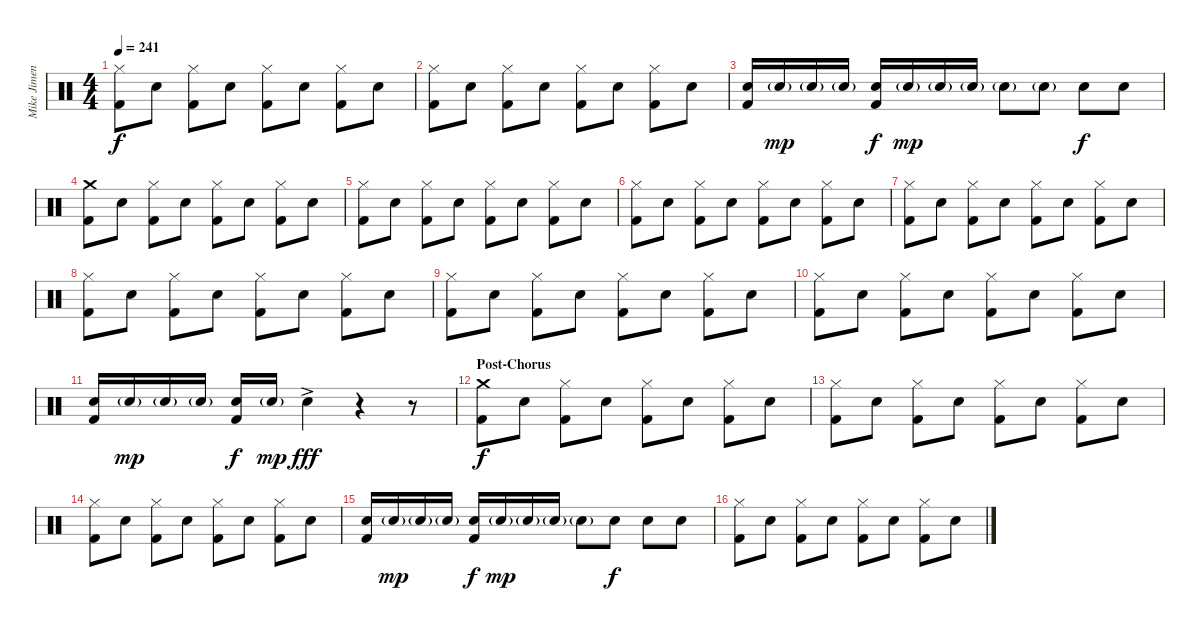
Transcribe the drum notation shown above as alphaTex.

\track ("Mike Jimenez" "Mike Jimen") {instrument percussion}
\staff {score}
\articulation defaults
\ts (4 4)
\tempo 241
\clef neutral
\ks c
("Hi-Hat (closed)" "Kick (hit) 2").8{dy f} "Electric Snare (hit)".8 ("Hi-Hat (closed)" "Kick (hit) 2").8 "Electric Snare (hit)".8 ("Hi-Hat (closed)" "Kick (hit) 2").8 "Electric Snare (hit)".8 ("Hi-Hat (closed)" "Kick (hit) 2").8 "Electric Snare (hit)".8 |
("Hi-Hat (closed)" "Kick (hit) 2").8 "Electric Snare (hit)".8 ("Hi-Hat (closed)" "Kick (hit) 2").8 "Electric Snare (hit)".8 ("Hi-Hat (closed)" "Kick (hit) 2").8 "Electric Snare (hit)".8 ("Hi-Hat (closed)" "Kick (hit) 2").8 "Electric Snare (hit)".8 |
("Electric Snare (hit)" "Kick (hit) 2").16 "Electric Snare (hit)"{g}.16{dy mp} "Electric Snare (hit)"{g}.16 "Electric Snare (hit)"{g}.16 ("Electric Snare (hit)" "Kick (hit) 2").16{dy f} "Electric Snare (hit)"{g}.16{dy mp} "Electric Snare (hit)"{g}.16 "Electric Snare (hit)"{g}.16 "Electric Snare (hit)"{g}.8 "Electric Snare (hit)"{g}.8 "Electric Snare (hit)".8{dy f} "Electric Snare (hit)".8 |
("Crash medium (hit)" "Kick (hit) 2").8 "Electric Snare (hit)".8 ("Hi-Hat (closed)" "Kick (hit) 2").8 "Electric Snare (hit)".8 ("Hi-Hat (closed)" "Kick (hit) 2").8 "Electric Snare (hit)".8 ("Hi-Hat (closed)" "Kick (hit) 2").8 "Electric Snare (hit)".8 |
("Hi-Hat (closed)" "Kick (hit) 2").8 "Electric Snare (hit)".8 ("Hi-Hat (closed)" "Kick (hit) 2").8 "Electric Snare (hit)".8 ("Hi-Hat (closed)" "Kick (hit) 2").8 "Electric Snare (hit)".8 ("Hi-Hat (closed)" "Kick (hit) 2").8 "Electric Snare (hit)".8 |
("Hi-Hat (closed)" "Kick (hit) 2").8 "Electric Snare (hit)".8 ("Hi-Hat (closed)" "Kick (hit) 2").8 "Electric Snare (hit)".8 ("Hi-Hat (closed)" "Kick (hit) 2").8 "Electric Snare (hit)".8 ("Hi-Hat (closed)" "Kick (hit) 2").8 "Electric Snare (hit)".8 |
("Hi-Hat (closed)" "Kick (hit) 2").8 "Electric Snare (hit)".8 ("Hi-Hat (closed)" "Kick (hit) 2").8 "Electric Snare (hit)".8 ("Hi-Hat (closed)" "Kick (hit) 2").8 "Electric Snare (hit)".8 ("Hi-Hat (closed)" "Kick (hit) 2").8 "Electric Snare (hit)".8 |
("Hi-Hat (closed)" "Kick (hit) 2").8 "Electric Snare (hit)".8 ("Hi-Hat (closed)" "Kick (hit) 2").8 "Electric Snare (hit)".8 ("Hi-Hat (closed)" "Kick (hit) 2").8 "Electric Snare (hit)".8 ("Hi-Hat (closed)" "Kick (hit) 2").8 "Electric Snare (hit)".8 |
("Hi-Hat (closed)" "Kick (hit) 2").8 "Electric Snare (hit)".8 ("Hi-Hat (closed)" "Kick (hit) 2").8 "Electric Snare (hit)".8 ("Hi-Hat (closed)" "Kick (hit) 2").8 "Electric Snare (hit)".8 ("Hi-Hat (closed)" "Kick (hit) 2").8 "Electric Snare (hit)".8 |
("Hi-Hat (closed)" "Kick (hit) 2").8 "Electric Snare (hit)".8 ("Hi-Hat (closed)" "Kick (hit) 2").8 "Electric Snare (hit)".8 ("Hi-Hat (closed)" "Kick (hit) 2").8 "Electric Snare (hit)".8 ("Hi-Hat (closed)" "Kick (hit) 2").8 "Electric Snare (hit)".8 |
("Electric Snare (hit)" "Kick (hit) 2").16 "Electric Snare (hit)"{g}.16{dy mp} "Electric Snare (hit)"{g}.16 "Electric Snare (hit)"{g}.16 ("Electric Snare (hit)" "Kick (hit) 2").16{dy f} "Electric Snare (hit)"{g}.16{dy mp} "Electric Snare (hit)"{ac}.4{dy fff} r.4 r.8 |
\section ("" "Post-Chorus")
("Crash medium (hit)" "Kick (hit) 2").8{dy f} "Electric Snare (hit)".8 ("Hi-Hat (closed)" "Kick (hit) 2").8 "Electric Snare (hit)".8 ("Hi-Hat (closed)" "Kick (hit) 2").8 "Electric Snare (hit)".8 ("Hi-Hat (closed)" "Kick (hit) 2").8 "Electric Snare (hit)".8 |
("Hi-Hat (closed)" "Kick (hit) 2").8 "Electric Snare (hit)".8 ("Hi-Hat (closed)" "Kick (hit) 2").8 "Electric Snare (hit)".8 ("Hi-Hat (closed)" "Kick (hit) 2").8 "Electric Snare (hit)".8 ("Hi-Hat (closed)" "Kick (hit) 2").8 "Electric Snare (hit)".8 |
("Hi-Hat (closed)" "Kick (hit) 2").8 "Electric Snare (hit)".8 ("Hi-Hat (closed)" "Kick (hit) 2").8 "Electric Snare (hit)".8 ("Hi-Hat (closed)" "Kick (hit) 2").8 "Electric Snare (hit)".8 ("Hi-Hat (closed)" "Kick (hit) 2").8 "Electric Snare (hit)".8 |
("Electric Snare (hit)" "Kick (hit) 2").16 "Electric Snare (hit)"{g}.16{dy mp} "Electric Snare (hit)"{g}.16 "Electric Snare (hit)"{g}.16 ("Electric Snare (hit)" "Kick (hit) 2").16{dy f} "Electric Snare (hit)"{g}.16{dy mp} "Electric Snare (hit)"{g}.16 "Electric Snare (hit)"{g}.16 "Electric Snare (hit)"{g}.8 "Electric Snare (hit)".8{dy f} "Electric Snare (hit)".8 "Electric Snare (hit)".8 |
("Hi-Hat (closed)" "Kick (hit) 2").8 "Electric Snare (hit)".8 ("Hi-Hat (closed)" "Kick (hit) 2").8 "Electric Snare (hit)".8 ("Hi-Hat (closed)" "Kick (hit) 2").8 "Electric Snare (hit)".8 ("Hi-Hat (closed)" "Kick (hit) 2").8 "Electric Snare (hit)".8
